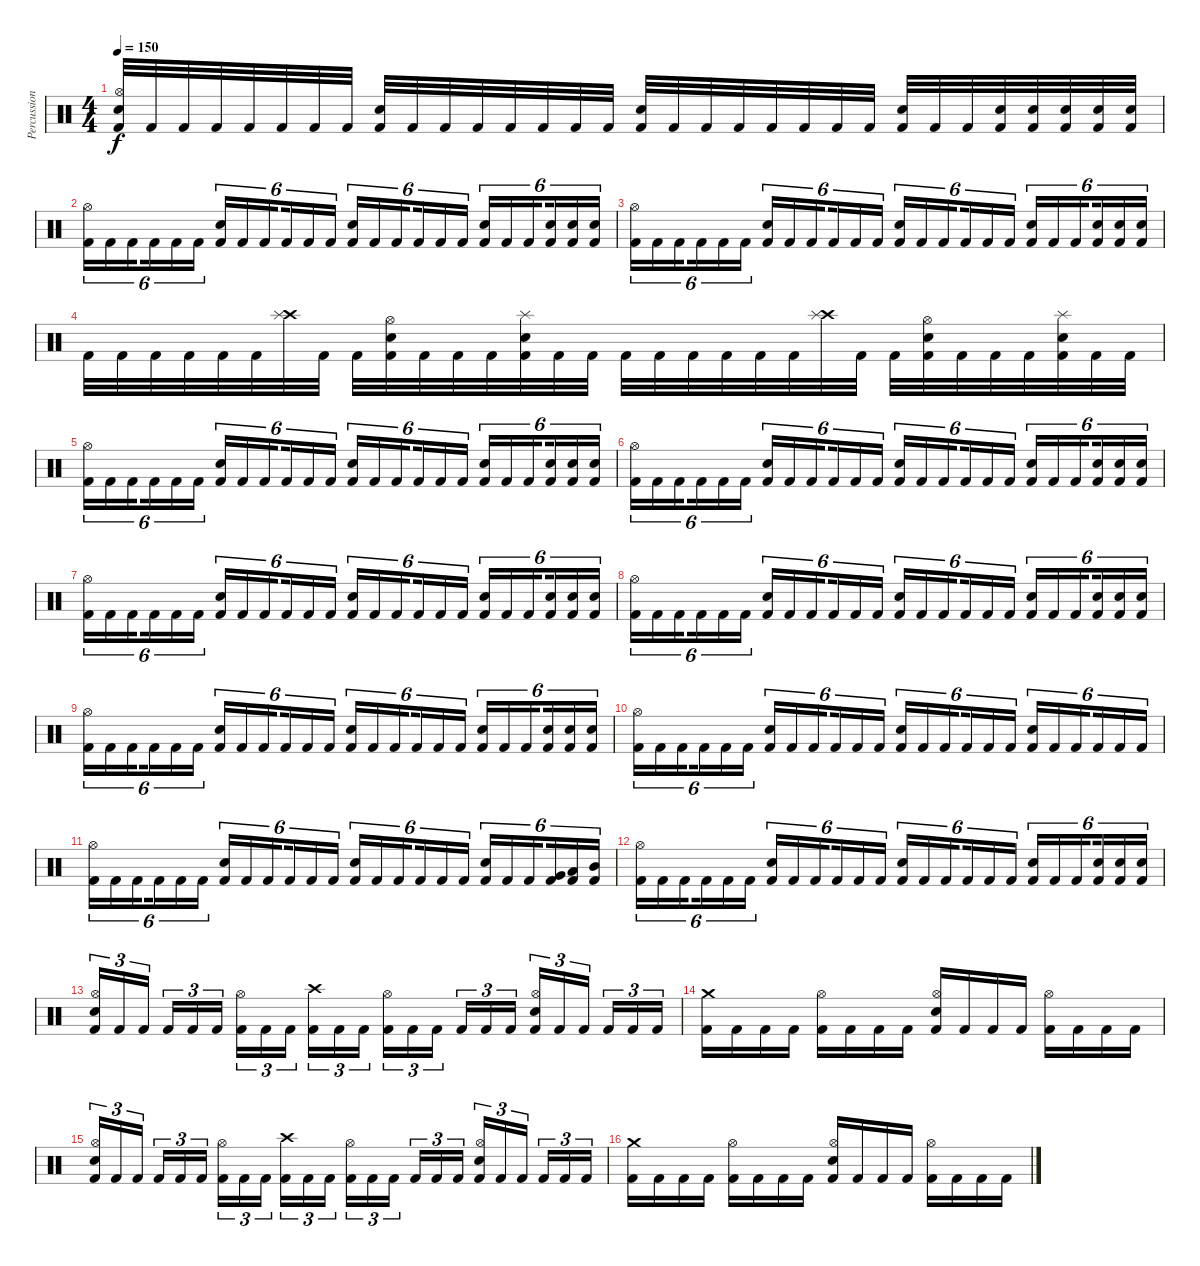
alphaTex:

\track ("Percussion" "Percussion") {instrument percussion}
\staff {score}
\articulation defaults
\ts (4 4)
\tempo 150
\clef neutral
\ks c
("Snare (hit) 2" "Hi-Hat (open)" "Kick (hit) 2").32{dy f} "Kick (hit) 2".32 "Kick (hit) 2".32 "Kick (hit) 2".32 "Kick (hit) 2".32 "Kick (hit) 2".32 "Kick (hit) 2".32 "Kick (hit) 2".32 ("Snare (hit) 2" "Kick (hit) 2").32 "Kick (hit) 2".32 "Kick (hit) 2".32 "Kick (hit) 2".32 "Kick (hit) 2".32 "Kick (hit) 2".32 "Kick (hit) 2".32 "Kick (hit) 2".32 ("Snare (hit) 2" "Kick (hit) 2").32 "Kick (hit) 2".32 "Kick (hit) 2".32 "Kick (hit) 2".32 "Kick (hit) 2".32 "Kick (hit) 2".32 "Kick (hit) 2".32 "Kick (hit) 2".32 ("Snare (hit) 2" "Kick (hit) 2").32 "Kick (hit) 2".32 "Kick (hit) 2".32 ("Snare (hit) 2" "Kick (hit) 2").32 ("Snare (hit) 2" "Kick (hit) 2").32 ("Snare (hit) 2" "Kick (hit) 2").32 ("Snare (hit) 2" "Kick (hit) 2").32 ("Snare (hit) 2" "Kick (hit) 2").32 |
("Hi-Hat (open)" "Kick (hit) 2").16{tu (6 4)} "Kick (hit) 2".16{tu (6 4)} "Kick (hit) 2".16{tu (6 4) beam splitsecondary} "Kick (hit) 2".16{tu (6 4)} "Kick (hit) 2".16{tu (6 4)} "Kick (hit) 2".16{tu (6 4)} ("Snare (hit) 2" "Kick (hit) 2").16{tu (6 4)} "Kick (hit) 2".16{tu (6 4)} "Kick (hit) 2".16{tu (6 4) beam splitsecondary} "Kick (hit) 2".16{tu (6 4)} "Kick (hit) 2".16{tu (6 4)} "Kick (hit) 2".16{tu (6 4)} ("Snare (hit) 2" "Kick (hit) 2").16{tu (6 4)} "Kick (hit) 2".16{tu (6 4)} "Kick (hit) 2".16{tu (6 4) beam splitsecondary} "Kick (hit) 2".16{tu (6 4)} "Kick (hit) 2".16{tu (6 4)} "Kick (hit) 2".16{tu (6 4)} ("Snare (hit) 2" "Kick (hit) 2").16{tu (6 4)} "Kick (hit) 2".16{tu (6 4)} "Kick (hit) 2".16{tu (6 4) beam splitsecondary} ("Snare (hit) 2" "Kick (hit) 2").16{tu (6 4)} ("Snare (hit) 2" "Kick (hit) 2").16{tu (6 4)} ("Snare (hit) 2" "Kick (hit) 2").16{tu (6 4)} |
("Hi-Hat (open)" "Kick (hit) 2").16{tu (6 4)} "Kick (hit) 2".16{tu (6 4)} "Kick (hit) 2".16{tu (6 4) beam splitsecondary} "Kick (hit) 2".16{tu (6 4)} "Kick (hit) 2".16{tu (6 4)} "Kick (hit) 2".16{tu (6 4)} ("Snare (hit) 2" "Kick (hit) 2").16{tu (6 4)} "Kick (hit) 2".16{tu (6 4)} "Kick (hit) 2".16{tu (6 4) beam splitsecondary} "Kick (hit) 2".16{tu (6 4)} "Kick (hit) 2".16{tu (6 4)} "Kick (hit) 2".16{tu (6 4)} ("Snare (hit) 2" "Kick (hit) 2").16{tu (6 4)} "Kick (hit) 2".16{tu (6 4)} "Kick (hit) 2".16{tu (6 4) beam splitsecondary} "Kick (hit) 2".16{tu (6 4)} "Kick (hit) 2".16{tu (6 4)} "Kick (hit) 2".16{tu (6 4)} ("Snare (hit) 2" "Kick (hit) 2").16{tu (6 4)} "Kick (hit) 2".16{tu (6 4)} "Kick (hit) 2".16{tu (6 4) beam splitsecondary} ("Snare (hit) 2" "Kick (hit) 2").16{tu (6 4)} ("Snare (hit) 2" "Kick (hit) 2").16{tu (6 4)} ("Snare (hit) 2" "Kick (hit) 2").16{tu (6 4)} |
"Kick (hit) 2".32 "Kick (hit) 2".32 "Kick (hit) 2".32 "Kick (hit) 2".32 "Kick (hit) 2".32 "Kick (hit) 2".32 ("Crash high (hit)" "Splash (hit)").32 "Kick (hit) 2".32 "Kick (hit) 2".32 ("Hi-Hat (open)" "Snare (hit) 2" "Kick (hit) 2").32 "Kick (hit) 2".32 "Kick (hit) 2".32 "Kick (hit) 2".32 ("Splash (hit)" "Snare (hit) 2" "Kick (hit) 2").32 "Kick (hit) 2".32 "Kick (hit) 2".32 "Kick (hit) 2".32 "Kick (hit) 2".32 "Kick (hit) 2".32 "Kick (hit) 2".32 "Kick (hit) 2".32 "Kick (hit) 2".32 ("Crash high (hit)" "Splash (hit)").32 "Kick (hit) 2".32 "Kick (hit) 2".32 ("Hi-Hat (open)" "Snare (hit) 2" "Kick (hit) 2").32 "Kick (hit) 2".32 "Kick (hit) 2".32 "Kick (hit) 2".32 ("Splash (hit)" "Snare (hit) 2" "Kick (hit) 2").32 "Kick (hit) 2".32 "Kick (hit) 2".32 |
("Hi-Hat (open)" "Kick (hit) 2").16{tu (6 4)} "Kick (hit) 2".16{tu (6 4)} "Kick (hit) 2".16{tu (6 4) beam splitsecondary} "Kick (hit) 2".16{tu (6 4)} "Kick (hit) 2".16{tu (6 4)} "Kick (hit) 2".16{tu (6 4)} ("Snare (hit) 2" "Kick (hit) 2").16{tu (6 4)} "Kick (hit) 2".16{tu (6 4)} "Kick (hit) 2".16{tu (6 4) beam splitsecondary} "Kick (hit) 2".16{tu (6 4)} "Kick (hit) 2".16{tu (6 4)} "Kick (hit) 2".16{tu (6 4)} ("Snare (hit) 2" "Kick (hit) 2").16{tu (6 4)} "Kick (hit) 2".16{tu (6 4)} "Kick (hit) 2".16{tu (6 4) beam splitsecondary} "Kick (hit) 2".16{tu (6 4)} "Kick (hit) 2".16{tu (6 4)} "Kick (hit) 2".16{tu (6 4)} ("Snare (hit) 2" "Kick (hit) 2").16{tu (6 4)} "Kick (hit) 2".16{tu (6 4)} "Kick (hit) 2".16{tu (6 4) beam splitsecondary} ("Snare (hit) 2" "Kick (hit) 2").16{tu (6 4)} ("Snare (hit) 2" "Kick (hit) 2").16{tu (6 4)} ("Snare (hit) 2" "Kick (hit) 2").16{tu (6 4)} |
("Hi-Hat (open)" "Kick (hit) 2").16{tu (6 4)} "Kick (hit) 2".16{tu (6 4)} "Kick (hit) 2".16{tu (6 4) beam splitsecondary} "Kick (hit) 2".16{tu (6 4)} "Kick (hit) 2".16{tu (6 4)} "Kick (hit) 2".16{tu (6 4)} ("Snare (hit) 2" "Kick (hit) 2").16{tu (6 4)} "Kick (hit) 2".16{tu (6 4)} "Kick (hit) 2".16{tu (6 4) beam splitsecondary} "Kick (hit) 2".16{tu (6 4)} "Kick (hit) 2".16{tu (6 4)} "Kick (hit) 2".16{tu (6 4)} ("Snare (hit) 2" "Kick (hit) 2").16{tu (6 4)} "Kick (hit) 2".16{tu (6 4)} "Kick (hit) 2".16{tu (6 4) beam splitsecondary} "Kick (hit) 2".16{tu (6 4)} "Kick (hit) 2".16{tu (6 4)} "Kick (hit) 2".16{tu (6 4)} ("Snare (hit) 2" "Kick (hit) 2").16{tu (6 4)} "Kick (hit) 2".16{tu (6 4)} "Kick (hit) 2".16{tu (6 4) beam splitsecondary} ("Snare (hit) 2" "Kick (hit) 2").16{tu (6 4)} ("Snare (hit) 2" "Kick (hit) 2").16{tu (6 4)} ("Snare (hit) 2" "Kick (hit) 2").16{tu (6 4)} |
("Hi-Hat (open)" "Kick (hit) 2").16{tu (6 4)} "Kick (hit) 2".16{tu (6 4)} "Kick (hit) 2".16{tu (6 4) beam splitsecondary} "Kick (hit) 2".16{tu (6 4)} "Kick (hit) 2".16{tu (6 4)} "Kick (hit) 2".16{tu (6 4)} ("Snare (hit) 2" "Kick (hit) 2").16{tu (6 4)} "Kick (hit) 2".16{tu (6 4)} "Kick (hit) 2".16{tu (6 4) beam splitsecondary} "Kick (hit) 2".16{tu (6 4)} "Kick (hit) 2".16{tu (6 4)} "Kick (hit) 2".16{tu (6 4)} ("Snare (hit) 2" "Kick (hit) 2").16{tu (6 4)} "Kick (hit) 2".16{tu (6 4)} "Kick (hit) 2".16{tu (6 4) beam splitsecondary} "Kick (hit) 2".16{tu (6 4)} "Kick (hit) 2".16{tu (6 4)} "Kick (hit) 2".16{tu (6 4)} ("Snare (hit) 2" "Kick (hit) 2").16{tu (6 4)} "Kick (hit) 2".16{tu (6 4)} "Kick (hit) 2".16{tu (6 4) beam splitsecondary} ("Snare (hit) 2" "Kick (hit) 2").16{tu (6 4)} ("Snare (hit) 2" "Kick (hit) 2").16{tu (6 4)} ("Snare (hit) 2" "Kick (hit) 2").16{tu (6 4)} |
("Hi-Hat (open)" "Kick (hit) 2").16{tu (6 4)} "Kick (hit) 2".16{tu (6 4)} "Kick (hit) 2".16{tu (6 4) beam splitsecondary} "Kick (hit) 2".16{tu (6 4)} "Kick (hit) 2".16{tu (6 4)} "Kick (hit) 2".16{tu (6 4)} ("Snare (hit) 2" "Kick (hit) 2").16{tu (6 4)} "Kick (hit) 2".16{tu (6 4)} "Kick (hit) 2".16{tu (6 4) beam splitsecondary} "Kick (hit) 2".16{tu (6 4)} "Kick (hit) 2".16{tu (6 4)} "Kick (hit) 2".16{tu (6 4)} ("Snare (hit) 2" "Kick (hit) 2").16{tu (6 4)} "Kick (hit) 2".16{tu (6 4)} "Kick (hit) 2".16{tu (6 4) beam splitsecondary} "Kick (hit) 2".16{tu (6 4)} "Kick (hit) 2".16{tu (6 4)} "Kick (hit) 2".16{tu (6 4)} ("Snare (hit) 2" "Kick (hit) 2").16{tu (6 4)} "Kick (hit) 2".16{tu (6 4)} "Kick (hit) 2".16{tu (6 4) beam splitsecondary} ("Snare (hit) 2" "Kick (hit) 2").16{tu (6 4)} ("Snare (hit) 2" "Kick (hit) 2").16{tu (6 4)} ("Snare (hit) 2" "Kick (hit) 2").16{tu (6 4)} |
("Hi-Hat (open)" "Kick (hit) 2").16{tu (6 4)} "Kick (hit) 2".16{tu (6 4)} "Kick (hit) 2".16{tu (6 4) beam splitsecondary} "Kick (hit) 2".16{tu (6 4)} "Kick (hit) 2".16{tu (6 4)} "Kick (hit) 2".16{tu (6 4)} ("Snare (hit) 2" "Kick (hit) 2").16{tu (6 4)} "Kick (hit) 2".16{tu (6 4)} "Kick (hit) 2".16{tu (6 4) beam splitsecondary} "Kick (hit) 2".16{tu (6 4)} "Kick (hit) 2".16{tu (6 4)} "Kick (hit) 2".16{tu (6 4)} ("Snare (hit) 2" "Kick (hit) 2").16{tu (6 4)} "Kick (hit) 2".16{tu (6 4)} "Kick (hit) 2".16{tu (6 4) beam splitsecondary} "Kick (hit) 2".16{tu (6 4)} "Kick (hit) 2".16{tu (6 4)} "Kick (hit) 2".16{tu (6 4)} ("Snare (hit) 2" "Kick (hit) 2").16{tu (6 4)} "Kick (hit) 2".16{tu (6 4)} "Kick (hit) 2".16{tu (6 4) beam splitsecondary} ("Snare (hit) 2" "Kick (hit) 2").16{tu (6 4)} ("Snare (hit) 2" "Kick (hit) 2").16{tu (6 4)} ("Snare (hit) 2" "Kick (hit) 2").16{tu (6 4)} |
("Hi-Hat (open)" "Kick (hit) 2").16{tu (6 4)} "Kick (hit) 2".16{tu (6 4)} "Kick (hit) 2".16{tu (6 4) beam splitsecondary} "Kick (hit) 2".16{tu (6 4)} "Kick (hit) 2".16{tu (6 4)} "Kick (hit) 2".16{tu (6 4)} ("Snare (hit) 2" "Kick (hit) 2").16{tu (6 4)} "Kick (hit) 2".16{tu (6 4)} "Kick (hit) 2".16{tu (6 4) beam splitsecondary} "Kick (hit) 2".16{tu (6 4)} "Kick (hit) 2".16{tu (6 4)} "Kick (hit) 2".16{tu (6 4)} ("Snare (hit) 2" "Kick (hit) 2").16{tu (6 4)} "Kick (hit) 2".16{tu (6 4)} "Kick (hit) 2".16{tu (6 4) beam splitsecondary} "Kick (hit) 2".16{tu (6 4)} "Kick (hit) 2".16{tu (6 4)} "Kick (hit) 2".16{tu (6 4)} ("Snare (hit) 2" "Kick (hit) 2").16{tu (6 4)} "Kick (hit) 2".16{tu (6 4)} "Kick (hit) 2".16{tu (6 4) beam splitsecondary} "Kick (hit) 2".16{tu (6 4)} "Kick (hit) 2".16{tu (6 4)} "Kick (hit) 2".16{tu (6 4)} |
("Hi-Hat (open)" "Kick (hit) 2").16{tu (6 4)} "Kick (hit) 2".16{tu (6 4)} "Kick (hit) 2".16{tu (6 4) beam splitsecondary} "Kick (hit) 2".16{tu (6 4)} "Kick (hit) 2".16{tu (6 4)} "Kick (hit) 2".16{tu (6 4)} ("Snare (hit) 2" "Kick (hit) 2").16{tu (6 4)} "Kick (hit) 2".16{tu (6 4)} "Kick (hit) 2".16{tu (6 4) beam splitsecondary} "Kick (hit) 2".16{tu (6 4)} "Kick (hit) 2".16{tu (6 4)} "Kick (hit) 2".16{tu (6 4)} ("Snare (hit) 2" "Kick (hit) 2").16{tu (6 4)} "Kick (hit) 2".16{tu (6 4)} "Kick (hit) 2".16{tu (6 4) beam splitsecondary} "Kick (hit) 2".16{tu (6 4)} "Kick (hit) 2".16{tu (6 4)} "Kick (hit) 2".16{tu (6 4)} ("Snare (hit) 2" "Kick (hit) 2").16{tu (6 4)} "Kick (hit) 2".16{tu (6 4)} "Kick (hit) 2".16{tu (6 4) beam splitsecondary} ("Very Low Tom (hit)" "Kick (hit) 2").16{tu (6 4)} ("Low Tom (hit)" "Kick (hit) 2").16{tu (6 4)} ("Mid Tom (hit)" "Kick (hit) 2").16{tu (6 4)} |
("Hi-Hat (open)" "Kick (hit) 2").16{tu (6 4)} "Kick (hit) 2".16{tu (6 4)} "Kick (hit) 2".16{tu (6 4) beam splitsecondary} "Kick (hit) 2".16{tu (6 4)} "Kick (hit) 2".16{tu (6 4)} "Kick (hit) 2".16{tu (6 4)} ("Snare (hit) 2" "Kick (hit) 2").16{tu (6 4)} "Kick (hit) 2".16{tu (6 4)} "Kick (hit) 2".16{tu (6 4) beam splitsecondary} "Kick (hit) 2".16{tu (6 4)} "Kick (hit) 2".16{tu (6 4)} "Kick (hit) 2".16{tu (6 4)} ("Snare (hit) 2" "Kick (hit) 2").16{tu (6 4)} "Kick (hit) 2".16{tu (6 4)} "Kick (hit) 2".16{tu (6 4) beam splitsecondary} "Kick (hit) 2".16{tu (6 4)} "Kick (hit) 2".16{tu (6 4)} "Kick (hit) 2".16{tu (6 4)} ("Snare (hit) 2" "Kick (hit) 2").16{tu (6 4)} "Kick (hit) 2".16{tu (6 4)} "Kick (hit) 2".16{tu (6 4) beam splitsecondary} ("Snare (hit) 2" "Kick (hit) 2").16{tu (6 4)} ("Snare (hit) 2" "Kick (hit) 2").16{tu (6 4)} ("Snare (hit) 2" "Kick (hit) 2").16{tu (6 4)} |
("Hi-Hat (open)" "Snare (hit) 2" "Kick (hit) 2").16{tu (3 2)} "Kick (hit) 2".16{tu (3 2)} "Kick (hit) 2".16{tu (3 2) beam splitsecondary} "Kick (hit) 2".16{tu (3 2)} "Kick (hit) 2".16{tu (3 2)} "Kick (hit) 2".16{tu (3 2)} ("Hi-Hat (open)" "Kick (hit) 2").16{tu (3 2)} "Kick (hit) 2".16{tu (3 2)} "Kick (hit) 2".16{tu (3 2) beam splitsecondary} ("Crash high (hit)" "Kick (hit) 2").16{tu (3 2)} "Kick (hit) 2".16{tu (3 2)} "Kick (hit) 2".16{tu (3 2)} ("Hi-Hat (open)" "Kick (hit) 2").16{tu (3 2)} "Kick (hit) 2".16{tu (3 2)} "Kick (hit) 2".16{tu (3 2) beam splitsecondary} "Kick (hit) 2".16{tu (3 2)} "Kick (hit) 2".16{tu (3 2)} "Kick (hit) 2".16{tu (3 2)} ("Hi-Hat (open)" "Snare (hit) 2" "Kick (hit) 2").16{tu (3 2)} "Kick (hit) 2".16{tu (3 2)} "Kick (hit) 2".16{tu (3 2) beam splitsecondary} "Kick (hit) 2".16{tu (3 2)} "Kick (hit) 2".16{tu (3 2)} "Kick (hit) 2".16{tu (3 2)} |
("Crash medium (hit)" "Kick (hit) 2").16 "Kick (hit) 2".16 "Kick (hit) 2".16 "Kick (hit) 2".16 ("Hi-Hat (open)" "Kick (hit) 2").16 "Kick (hit) 2".16 "Kick (hit) 2".16 "Kick (hit) 2".16 ("Hi-Hat (open)" "Snare (hit) 2" "Kick (hit) 2").16 "Kick (hit) 2".16 "Kick (hit) 2".16 "Kick (hit) 2".16 ("Hi-Hat (open)" "Kick (hit) 2").16 "Kick (hit) 2".16 "Kick (hit) 2".16 "Kick (hit) 2".16 |
("Hi-Hat (open)" "Snare (hit) 2" "Kick (hit) 2").16{tu (3 2)} "Kick (hit) 2".16{tu (3 2)} "Kick (hit) 2".16{tu (3 2) beam splitsecondary} "Kick (hit) 2".16{tu (3 2)} "Kick (hit) 2".16{tu (3 2)} "Kick (hit) 2".16{tu (3 2)} ("Hi-Hat (open)" "Kick (hit) 2").16{tu (3 2)} "Kick (hit) 2".16{tu (3 2)} "Kick (hit) 2".16{tu (3 2) beam splitsecondary} ("Crash high (hit)" "Kick (hit) 2").16{tu (3 2)} "Kick (hit) 2".16{tu (3 2)} "Kick (hit) 2".16{tu (3 2)} ("Hi-Hat (open)" "Kick (hit) 2").16{tu (3 2)} "Kick (hit) 2".16{tu (3 2)} "Kick (hit) 2".16{tu (3 2) beam splitsecondary} "Kick (hit) 2".16{tu (3 2)} "Kick (hit) 2".16{tu (3 2)} "Kick (hit) 2".16{tu (3 2)} ("Hi-Hat (open)" "Snare (hit) 2" "Kick (hit) 2").16{tu (3 2)} "Kick (hit) 2".16{tu (3 2)} "Kick (hit) 2".16{tu (3 2) beam splitsecondary} "Kick (hit) 2".16{tu (3 2)} "Kick (hit) 2".16{tu (3 2)} "Kick (hit) 2".16{tu (3 2)} |
("Crash medium (hit)" "Kick (hit) 2").16 "Kick (hit) 2".16 "Kick (hit) 2".16 "Kick (hit) 2".16 ("Hi-Hat (open)" "Kick (hit) 2").16 "Kick (hit) 2".16 "Kick (hit) 2".16 "Kick (hit) 2".16 ("Hi-Hat (open)" "Snare (hit) 2" "Kick (hit) 2").16 "Kick (hit) 2".16 "Kick (hit) 2".16 "Kick (hit) 2".16 ("Hi-Hat (open)" "Kick (hit) 2").16 "Kick (hit) 2".16 "Kick (hit) 2".16 "Kick (hit) 2".16
